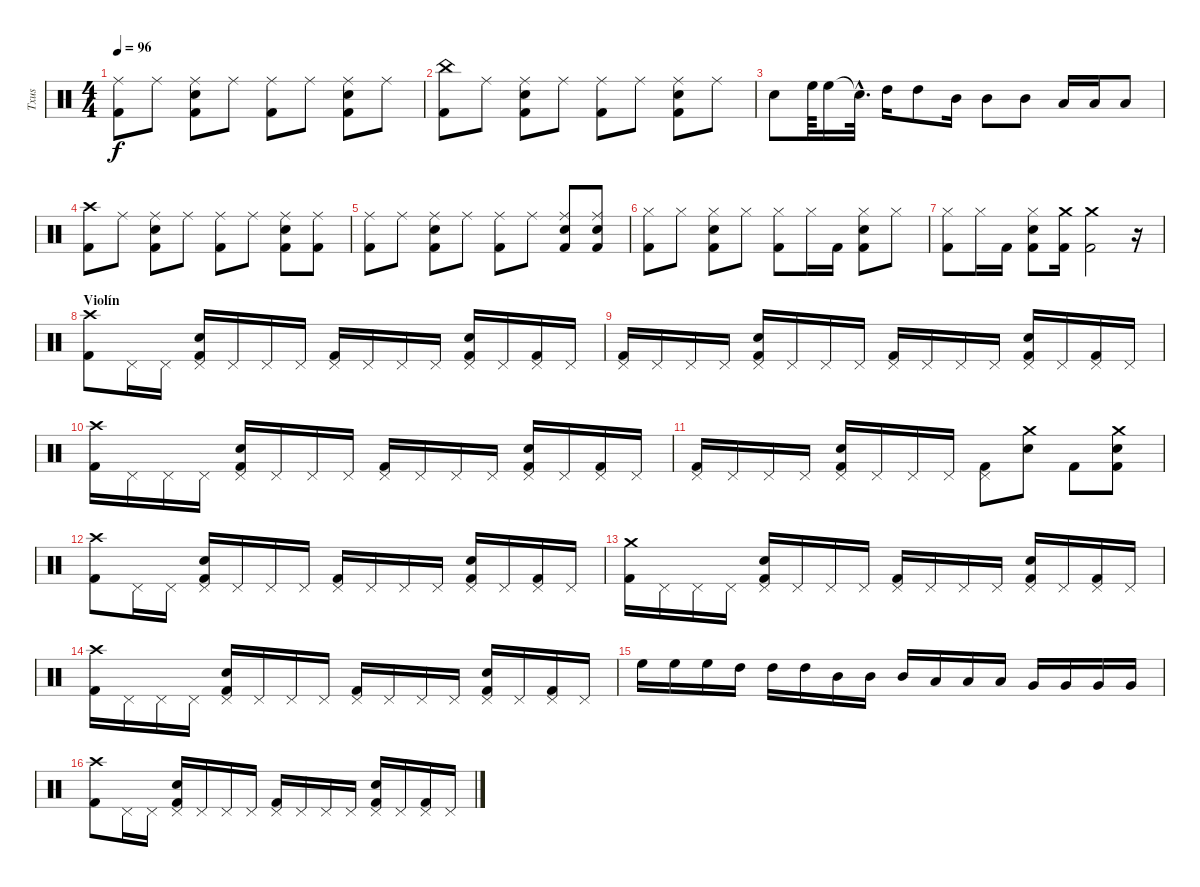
\track ("Txus" "Txus") {instrument percussion}
\staff {score}
\articulation defaults
\ts (4 4)
\tempo 96
\clef neutral
\ks c
("Kick (hit) 2" "Ride (middle)").8{dy f} "Ride (middle)".8 ("Kick (hit) 2" "Electric Snare (hit)" "Ride (middle)").8 "Ride (middle)".8 ("Kick (hit) 2" "Ride (middle)").8 "Ride (middle)".8 ("Kick (hit) 2" "Electric Snare (hit)" "Ride (middle)").8 "Ride (middle)".8 |
("Kick (hit) 2" "China (hit)").8 "Ride (middle)".8 ("Kick (hit) 2" "Electric Snare (hit)" "Ride (middle)").8 "Ride (middle)".8 ("Kick (hit) 2" "Ride (middle)").8 "Ride (middle)".8 ("Kick (hit) 2" "Electric Snare (hit)" "Ride (middle)").8 "Ride (middle)".8 |
"Electric Snare (hit)".8 "High Floor Tom (hit)".64 "High Floor Tom (hit)".16 "Snare (hit)"{hac t}.32{d} "High Tom (hit)".16 "High Tom (hit)".8 "Mid Tom (hit)".16 "Mid Tom (hit)".8 "Mid Tom (hit)".8 "Low Tom (hit)".16 "Low Tom (hit)".16 "Low Tom (hit)".8 |
("Kick (hit) 2" "Crash high (hit)").8 "Ride (middle)".8 ("Kick (hit) 2" "Electric Snare (hit)" "Ride (middle)").8 "Ride (middle)".8 ("Kick (hit) 2" "Ride (middle)").8 "Ride (middle)".8 ("Kick (hit) 2" "Electric Snare (hit)" "Ride (middle)").8 ("Kick (hit) 2" "Ride (middle)").8 |
("Kick (hit) 2" "Ride (middle)").8 "Ride (middle)".8 ("Kick (hit) 2" "Electric Snare (hit)" "Ride (middle)").8 "Ride (middle)".8 ("Kick (hit) 2" "Ride (middle)").8 "Ride (middle)".8 ("Kick (hit) 2" "Electric Snare (hit)" "Ride (middle)").8 ("Kick (hit) 2" "Electric Snare (hit)" "Ride (middle)").8 |
("Kick (hit) 2" "Hi-Hat (closed)").8 "Hi-Hat (closed)".8 ("Kick (hit) 2" "Electric Snare (hit)" "Hi-Hat (closed)").8 "Hi-Hat (closed)".8 ("Kick (hit) 2" "Hi-Hat (closed)").8 "Hi-Hat (closed)".16 "Kick (hit) 2".16 ("Kick (hit) 2" "Electric Snare (hit)" "Hi-Hat (closed)").8 "Hi-Hat (closed)".8 |
("Kick (hit) 2" "Hi-Hat (closed)").8 "Hi-Hat (closed)".16 "Kick (hit) 2".16 ("Kick (hit) 2" "Electric Snare (hit)" "Hi-Hat (closed)").8 ("Kick (hit) 2" "Crash medium (hit)").16 ("Kick (hit) 2" "Crash medium (hit)").2 r.16 |
\section ("" "Violín")
("Kick (hit) 2" "Crash high (hit)").8 "Pedal Hi-Hat (hit)".16 "Pedal Hi-Hat (hit)".16 ("Kick (hit) 2" "Electric Snare (hit)" "Pedal Hi-Hat (hit)").16 "Pedal Hi-Hat (hit)".16 "Pedal Hi-Hat (hit)".16 "Pedal Hi-Hat (hit)".16 ("Kick (hit) 2" "Pedal Hi-Hat (hit)").16 "Pedal Hi-Hat (hit)".16 "Pedal Hi-Hat (hit)".16 "Pedal Hi-Hat (hit)".16 ("Kick (hit) 2" "Electric Snare (hit)" "Pedal Hi-Hat (hit)").16 "Pedal Hi-Hat (hit)".16 ("Kick (hit) 2" "Pedal Hi-Hat (hit)").16 "Pedal Hi-Hat (hit)".16 |
("Kick (hit) 2" "Pedal Hi-Hat (hit)").16 "Pedal Hi-Hat (hit)".16 "Pedal Hi-Hat (hit)".16 "Pedal Hi-Hat (hit)".16 ("Kick (hit) 2" "Electric Snare (hit)" "Pedal Hi-Hat (hit)").16 "Pedal Hi-Hat (hit)".16 "Pedal Hi-Hat (hit)".16 "Pedal Hi-Hat (hit)".16 ("Kick (hit) 2" "Pedal Hi-Hat (hit)").16 "Pedal Hi-Hat (hit)".16 "Pedal Hi-Hat (hit)".16 "Pedal Hi-Hat (hit)".16 ("Kick (hit) 2" "Electric Snare (hit)" "Pedal Hi-Hat (hit)").16 "Pedal Hi-Hat (hit)".16 ("Kick (hit) 2" "Pedal Hi-Hat (hit)").16 "Pedal Hi-Hat (hit)".16 |
("Kick (hit) 2" "Crash high (hit)").16 "Pedal Hi-Hat (hit)".16 "Pedal Hi-Hat (hit)".16 "Pedal Hi-Hat (hit)".16 ("Kick (hit) 2" "Electric Snare (hit)" "Pedal Hi-Hat (hit)").16 "Pedal Hi-Hat (hit)".16 "Pedal Hi-Hat (hit)".16 "Pedal Hi-Hat (hit)".16 ("Kick (hit) 2" "Pedal Hi-Hat (hit)").16 "Pedal Hi-Hat (hit)".16 "Pedal Hi-Hat (hit)".16 "Pedal Hi-Hat (hit)".16 ("Kick (hit) 2" "Electric Snare (hit)" "Pedal Hi-Hat (hit)").16 "Pedal Hi-Hat (hit)".16 ("Kick (hit) 2" "Pedal Hi-Hat (hit)").16 "Pedal Hi-Hat (hit)".16 |
("Kick (hit) 2" "Pedal Hi-Hat (hit)").16 "Pedal Hi-Hat (hit)".16 "Pedal Hi-Hat (hit)".16 "Pedal Hi-Hat (hit)".16 ("Kick (hit) 2" "Electric Snare (hit)" "Pedal Hi-Hat (hit)").16 "Pedal Hi-Hat (hit)".16 "Pedal Hi-Hat (hit)".16 "Pedal Hi-Hat (hit)".16 ("Kick (hit) 2" "Pedal Hi-Hat (hit)").8 ("Electric Snare (hit)" "Crash medium (hit)").8 "Kick (hit) 2".8 ("Kick (hit) 2" "Electric Snare (hit)" "Crash medium (hit)").8 |
("Kick (hit) 2" "Crash high (hit)").8 "Pedal Hi-Hat (hit)".16 "Pedal Hi-Hat (hit)".16 ("Kick (hit) 2" "Electric Snare (hit)" "Pedal Hi-Hat (hit)").16 "Pedal Hi-Hat (hit)".16 "Pedal Hi-Hat (hit)".16 "Pedal Hi-Hat (hit)".16 ("Kick (hit) 2" "Pedal Hi-Hat (hit)").16 "Pedal Hi-Hat (hit)".16 "Pedal Hi-Hat (hit)".16 "Pedal Hi-Hat (hit)".16 ("Kick (hit) 2" "Electric Snare (hit)" "Pedal Hi-Hat (hit)").16 "Pedal Hi-Hat (hit)".16 ("Kick (hit) 2" "Pedal Hi-Hat (hit)").16 "Pedal Hi-Hat (hit)".16 |
("Kick (hit) 2" "Crash medium (hit)").16 "Pedal Hi-Hat (hit)".16 "Pedal Hi-Hat (hit)".16 "Pedal Hi-Hat (hit)".16 ("Kick (hit) 2" "Electric Snare (hit)" "Pedal Hi-Hat (hit)").16 "Pedal Hi-Hat (hit)".16 "Pedal Hi-Hat (hit)".16 "Pedal Hi-Hat (hit)".16 ("Kick (hit) 2" "Pedal Hi-Hat (hit)").16 "Pedal Hi-Hat (hit)".16 "Pedal Hi-Hat (hit)".16 "Pedal Hi-Hat (hit)".16 ("Kick (hit) 2" "Electric Snare (hit)" "Pedal Hi-Hat (hit)").16 "Pedal Hi-Hat (hit)".16 ("Kick (hit) 2" "Pedal Hi-Hat (hit)").16 "Pedal Hi-Hat (hit)".16 |
("Kick (hit) 2" "Crash high (hit)").16 "Pedal Hi-Hat (hit)".16 "Pedal Hi-Hat (hit)".16 "Pedal Hi-Hat (hit)".16 ("Kick (hit) 2" "Electric Snare (hit)" "Pedal Hi-Hat (hit)").16 "Pedal Hi-Hat (hit)".16 "Pedal Hi-Hat (hit)".16 "Pedal Hi-Hat (hit)".16 ("Kick (hit) 2" "Pedal Hi-Hat (hit)").16 "Pedal Hi-Hat (hit)".16 "Pedal Hi-Hat (hit)".16 "Pedal Hi-Hat (hit)".16 ("Kick (hit) 2" "Electric Snare (hit)" "Pedal Hi-Hat (hit)").16 "Pedal Hi-Hat (hit)".16 ("Kick (hit) 2" "Pedal Hi-Hat (hit)").16 "Pedal Hi-Hat (hit)".16 |
"High Floor Tom (hit)".16 "High Floor Tom (hit)".16 "High Floor Tom (hit)".16 "High Tom (hit)".16 "High Tom (hit)".16 "High Tom (hit)".16 "Mid Tom (hit)".16 "Mid Tom (hit)".16 "Mid Tom (hit)".16 "Low Tom (hit)".16 "Low Tom (hit)".16 "Low Tom (hit)".16 "Very Low Tom (hit)".16 "Very Low Tom (hit)".16 "Very Low Tom (hit)".16 "Very Low Tom (hit)".16 |
("Kick (hit) 2" "Crash high (hit)").8 "Pedal Hi-Hat (hit)".16 "Pedal Hi-Hat (hit)".16 ("Kick (hit) 2" "Electric Snare (hit)" "Pedal Hi-Hat (hit)").16 "Pedal Hi-Hat (hit)".16 "Pedal Hi-Hat (hit)".16 "Pedal Hi-Hat (hit)".16 ("Kick (hit) 2" "Pedal Hi-Hat (hit)").16 "Pedal Hi-Hat (hit)".16 "Pedal Hi-Hat (hit)".16 "Pedal Hi-Hat (hit)".16 ("Kick (hit) 2" "Electric Snare (hit)" "Pedal Hi-Hat (hit)").16 "Pedal Hi-Hat (hit)".16 ("Kick (hit) 2" "Pedal Hi-Hat (hit)").16 "Pedal Hi-Hat (hit)".16
